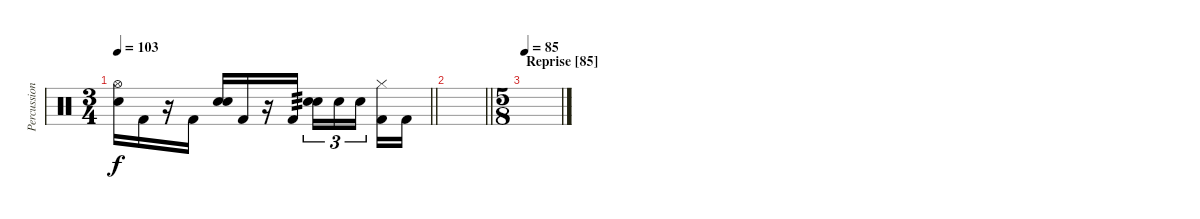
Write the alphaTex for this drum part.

\track ("Percussion" "Percussion") {instrument percussion}
\staff {score}
\articulation defaults
\ts (3 4)
\tempo 103
\clef neutral
\barLineRight lightlight
\ks c
("Hi-Hat (open)" "Snare (hit) 2").16{dy f} "Kick (hit) 2".16 r.16 "Kick (hit) 2".16 ("Snare (hit)" "Snare (hit) 2").16 "Kick (hit) 2".16 r.16 "Kick (hit) 2".16{tp 3} ("Snare (hit)" "Snare (hit) 2").16{tu (3 2)} "Snare (hit)".16{tu (3 2)} "Snare (hit)".16{tu (3 2) beam splitsecondary} ("Hi-Hat (closed)" "Kick (hit) 2").16 "Kick (hit) 2".16 |
\barLineRight lightlight
|
\ts (5 8)
\section ("" "Reprise [85]")
\tempo 85
